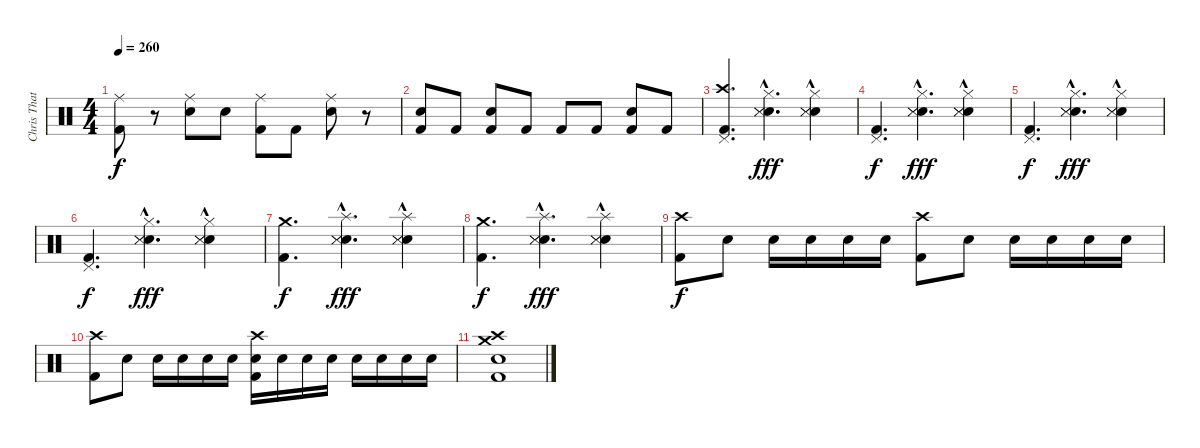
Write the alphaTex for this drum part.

\track ("Chris Thatcher    - Drums" "Chris That") {instrument percussion}
\staff {score}
\articulation defaults
\ts (4 4)
\tempo 260
\clef neutral
\ks c
("Ride (middle)" "Kick (hit) 2").8{dy f} r.8 ("Ride (middle)" "Electric Snare (hit)").8 "Electric Snare (hit)".8 ("Ride (middle)" "Kick (hit) 2").8 "Kick (hit) 2".8 ("Ride (middle)" "Electric Snare (hit)").8 r.8 |
("Kick (hit) 2" "Electric Snare (hit)").8 "Kick (hit) 2".8 ("Kick (hit) 2" "Electric Snare (hit)").8 "Kick (hit) 2".8 "Kick (hit) 2".8 "Kick (hit) 2".8 ("Kick (hit) 2" "Electric Snare (hit)").8 "Kick (hit) 2".8 |
("Crash high (hit)" "Pedal Hi-Hat (hit)" "Kick (hit) 2").4{d} ("Hi-Hat (closed)" "Electric Snare (hit)" "Snare (side stick) 3"{hac} "Snare (side stick) 3"{hac}).4{d dy fff} ("Hi-Hat (closed)" "Electric Snare (hit)" "Snare (side stick) 3"{hac} "Snare (side stick) 3"{hac}).4 |
("Pedal Hi-Hat (hit)" "Kick (hit) 2").4{d dy f} ("Hi-Hat (closed)" "Electric Snare (hit)" "Snare (side stick) 3"{hac} "Snare (side stick) 3"{hac}).4{d dy fff} ("Hi-Hat (closed)" "Electric Snare (hit)" "Snare (side stick) 3"{hac} "Snare (side stick) 3"{hac}).4 |
("Pedal Hi-Hat (hit)" "Kick (hit) 2").4{d dy f} ("Hi-Hat (closed)" "Electric Snare (hit)" "Snare (side stick) 3"{hac} "Snare (side stick) 3"{hac}).4{d dy fff} ("Hi-Hat (closed)" "Electric Snare (hit)" "Snare (side stick) 3"{hac} "Snare (side stick) 3"{hac}).4 |
("Pedal Hi-Hat (hit)" "Kick (hit) 2").4{d dy f} ("Hi-Hat (closed)" "Electric Snare (hit)" "Snare (side stick) 3"{hac} "Snare (side stick) 3"{hac}).4{d dy fff} ("Hi-Hat (closed)" "Electric Snare (hit)" "Snare (side stick) 3"{hac} "Snare (side stick) 3"{hac}).4 |
("Crash medium (hit)" "Kick (hit) 2").4{d dy f} ("Splash (hit)" "Electric Snare (hit)" "Snare (side stick) 3"{hac} "Snare (side stick) 3"{hac}).4{d dy fff} ("Splash (hit)" "Electric Snare (hit)" "Snare (side stick) 3"{hac} "Snare (side stick) 3"{hac}).4 |
("Crash medium (hit)" "Kick (hit) 2").4{d dy f} ("Splash (hit)" "Electric Snare (hit)" "Snare (side stick) 3"{hac} "Snare (side stick) 3"{hac}).4{d dy fff} ("Splash (hit)" "Electric Snare (hit)" "Snare (side stick) 3"{hac} "Snare (side stick) 3"{hac}).4 |
("Crash high (hit)" "Kick (hit) 2").8{dy f} "Electric Snare (hit)".8 "Electric Snare (hit)".16 "Electric Snare (hit)".16 "Electric Snare (hit)".16 "Electric Snare (hit)".16 ("Crash high (hit)" "Kick (hit) 2").8 "Electric Snare (hit)".8 "Electric Snare (hit)".16 "Electric Snare (hit)".16 "Electric Snare (hit)".16 "Electric Snare (hit)".16 |
("Crash high (hit)" "Kick (hit) 2").8 "Electric Snare (hit)".8 "Electric Snare (hit)".16 "Electric Snare (hit)".16 "Electric Snare (hit)".16 "Electric Snare (hit)".16 ("Crash high (hit)" "Kick (hit) 2" "Electric Snare (hit)").16 "Electric Snare (hit)".16 "Electric Snare (hit)".16 "Electric Snare (hit)".16 "Electric Snare (hit)".16 "Electric Snare (hit)".16 "Electric Snare (hit)".16 "Electric Snare (hit)".16 |
("Crash high (hit)" "Crash medium (hit)" "Kick (hit) 2" "Electric Snare (hit)").1
